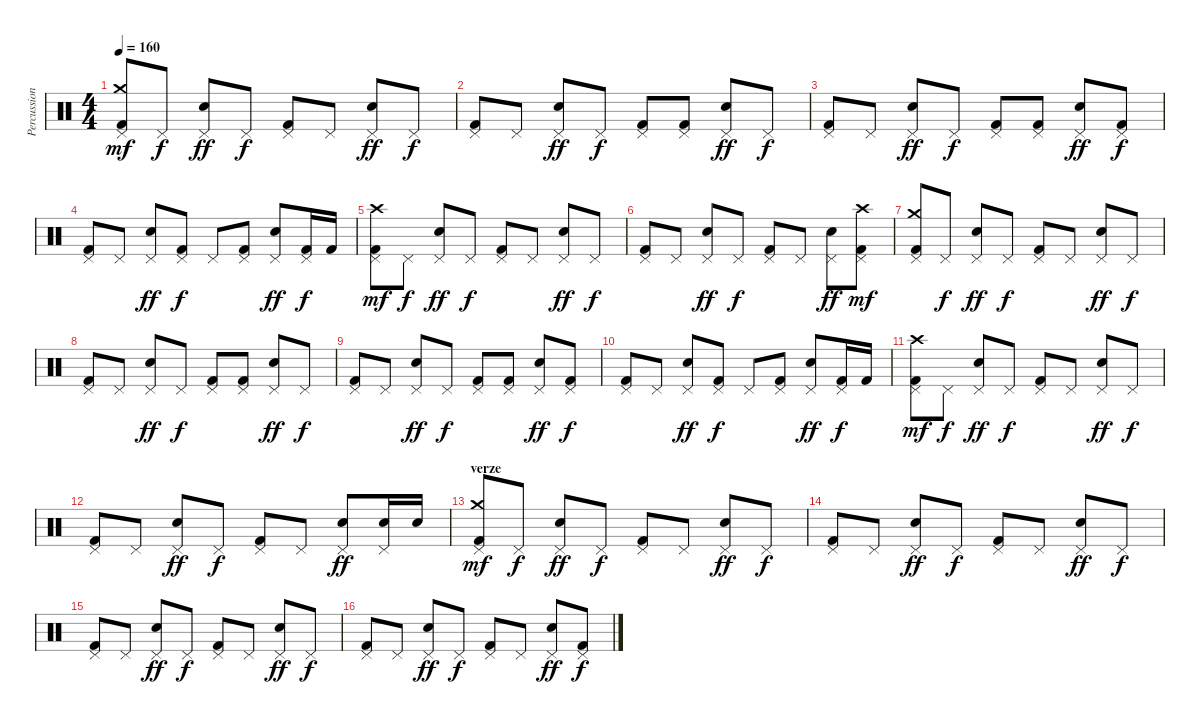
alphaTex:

\track ("Percussion" "Percussion") {instrument percussion}
\staff {score}
\articulation defaults
\ts (4 4)
\tempo 160
\clef neutral
\ks c
("Pedal Hi-Hat (hit)" "Crash medium (hit)" "Kick (hit) 2").8{dy mf} "Pedal Hi-Hat (hit)".8{dy f} ("Pedal Hi-Hat (hit)" "Electric Snare (hit)").8{dy ff} "Pedal Hi-Hat (hit)".8{dy f} ("Pedal Hi-Hat (hit)" "Kick (hit) 2").8 "Pedal Hi-Hat (hit)".8 ("Pedal Hi-Hat (hit)" "Electric Snare (hit)").8{dy ff} "Pedal Hi-Hat (hit)".8{dy f} |
("Pedal Hi-Hat (hit)" "Kick (hit) 2").8 "Pedal Hi-Hat (hit)".8 ("Pedal Hi-Hat (hit)" "Electric Snare (hit)").8{dy ff} "Pedal Hi-Hat (hit)".8{dy f} ("Pedal Hi-Hat (hit)" "Kick (hit) 2").8 ("Pedal Hi-Hat (hit)" "Kick (hit) 2").8 ("Pedal Hi-Hat (hit)" "Electric Snare (hit)").8{dy ff} "Pedal Hi-Hat (hit)".8{dy f} |
("Pedal Hi-Hat (hit)" "Kick (hit) 2").8 "Pedal Hi-Hat (hit)".8 ("Pedal Hi-Hat (hit)" "Electric Snare (hit)").8{dy ff} "Pedal Hi-Hat (hit)".8{dy f} ("Pedal Hi-Hat (hit)" "Kick (hit) 2").8 ("Pedal Hi-Hat (hit)" "Kick (hit) 2").8 ("Pedal Hi-Hat (hit)" "Electric Snare (hit)").8{dy ff} ("Pedal Hi-Hat (hit)" "Kick (hit) 2").8{dy f} |
("Pedal Hi-Hat (hit)" "Kick (hit) 2").8 "Pedal Hi-Hat (hit)".8 ("Pedal Hi-Hat (hit)" "Electric Snare (hit)").8{dy ff} ("Pedal Hi-Hat (hit)" "Kick (hit) 2").8{dy f} "Pedal Hi-Hat (hit)".8 ("Pedal Hi-Hat (hit)" "Kick (hit) 2").8 ("Pedal Hi-Hat (hit)" "Electric Snare (hit)").8{dy ff} ("Pedal Hi-Hat (hit)" "Kick (hit) 2").16{dy f} "Kick (hit) 2".16 |
("Pedal Hi-Hat (hit)" "Crash high (hit)" "Kick (hit) 2").8{dy mf} "Pedal Hi-Hat (hit)".8{dy f} ("Pedal Hi-Hat (hit)" "Electric Snare (hit)").8{dy ff} "Pedal Hi-Hat (hit)".8{dy f} ("Pedal Hi-Hat (hit)" "Kick (hit) 2").8 "Pedal Hi-Hat (hit)".8 ("Pedal Hi-Hat (hit)" "Electric Snare (hit)").8{dy ff} "Pedal Hi-Hat (hit)".8{dy f} |
("Pedal Hi-Hat (hit)" "Kick (hit) 2").8 "Pedal Hi-Hat (hit)".8 ("Pedal Hi-Hat (hit)" "Electric Snare (hit)").8{dy ff} "Pedal Hi-Hat (hit)".8{dy f} ("Pedal Hi-Hat (hit)" "Kick (hit) 2").8 "Pedal Hi-Hat (hit)".8 ("Pedal Hi-Hat (hit)" "Electric Snare (hit)").8{dy ff} ("Pedal Hi-Hat (hit)" "Crash high (hit)" "Kick (hit) 2").8{dy mf} |
("Pedal Hi-Hat (hit)" "Crash medium (hit)" "Kick (hit) 2").8 "Pedal Hi-Hat (hit)".8{dy f} ("Pedal Hi-Hat (hit)" "Electric Snare (hit)").8{dy ff} "Pedal Hi-Hat (hit)".8{dy f} ("Pedal Hi-Hat (hit)" "Kick (hit) 2").8 "Pedal Hi-Hat (hit)".8 ("Pedal Hi-Hat (hit)" "Electric Snare (hit)").8{dy ff} "Pedal Hi-Hat (hit)".8{dy f} |
("Pedal Hi-Hat (hit)" "Kick (hit) 2").8 "Pedal Hi-Hat (hit)".8 ("Pedal Hi-Hat (hit)" "Electric Snare (hit)").8{dy ff} "Pedal Hi-Hat (hit)".8{dy f} ("Pedal Hi-Hat (hit)" "Kick (hit) 2").8 ("Pedal Hi-Hat (hit)" "Kick (hit) 2").8 ("Pedal Hi-Hat (hit)" "Electric Snare (hit)").8{dy ff} "Pedal Hi-Hat (hit)".8{dy f} |
("Pedal Hi-Hat (hit)" "Kick (hit) 2").8 "Pedal Hi-Hat (hit)".8 ("Pedal Hi-Hat (hit)" "Electric Snare (hit)").8{dy ff} "Pedal Hi-Hat (hit)".8{dy f} ("Pedal Hi-Hat (hit)" "Kick (hit) 2").8 ("Pedal Hi-Hat (hit)" "Kick (hit) 2").8 ("Pedal Hi-Hat (hit)" "Electric Snare (hit)").8{dy ff} ("Pedal Hi-Hat (hit)" "Kick (hit) 2").8{dy f} |
("Pedal Hi-Hat (hit)" "Kick (hit) 2").8 "Pedal Hi-Hat (hit)".8 ("Pedal Hi-Hat (hit)" "Electric Snare (hit)").8{dy ff} ("Pedal Hi-Hat (hit)" "Kick (hit) 2").8{dy f} "Pedal Hi-Hat (hit)".8 ("Pedal Hi-Hat (hit)" "Kick (hit) 2").8 ("Pedal Hi-Hat (hit)" "Electric Snare (hit)").8{dy ff} ("Pedal Hi-Hat (hit)" "Kick (hit) 2").16{dy f} "Kick (hit) 2".16 |
("Pedal Hi-Hat (hit)" "Crash high (hit)" "Kick (hit) 2").8{dy mf} "Pedal Hi-Hat (hit)".8{dy f} ("Pedal Hi-Hat (hit)" "Electric Snare (hit)").8{dy ff} "Pedal Hi-Hat (hit)".8{dy f} ("Pedal Hi-Hat (hit)" "Kick (hit) 2").8 "Pedal Hi-Hat (hit)".8 ("Pedal Hi-Hat (hit)" "Electric Snare (hit)").8{dy ff} "Pedal Hi-Hat (hit)".8{dy f} |
("Pedal Hi-Hat (hit)" "Kick (hit) 2").8 "Pedal Hi-Hat (hit)".8 ("Pedal Hi-Hat (hit)" "Electric Snare (hit)").8{dy ff} "Pedal Hi-Hat (hit)".8{dy f} ("Pedal Hi-Hat (hit)" "Kick (hit) 2").8 "Pedal Hi-Hat (hit)".8 ("Pedal Hi-Hat (hit)" "Electric Snare (hit)").8{dy ff} ("Pedal Hi-Hat (hit)" "Electric Snare (hit)").16 "Electric Snare (hit)".16 |
\section ("" "verze")
("Pedal Hi-Hat (hit)" "Crash medium (hit)" "Kick (hit) 2").8{dy mf} "Pedal Hi-Hat (hit)".8{dy f} ("Pedal Hi-Hat (hit)" "Electric Snare (hit)").8{dy ff} "Pedal Hi-Hat (hit)".8{dy f} ("Pedal Hi-Hat (hit)" "Kick (hit) 2").8 "Pedal Hi-Hat (hit)".8 ("Pedal Hi-Hat (hit)" "Electric Snare (hit)").8{dy ff} "Pedal Hi-Hat (hit)".8{dy f} |
("Pedal Hi-Hat (hit)" "Kick (hit) 2").8 "Pedal Hi-Hat (hit)".8 ("Pedal Hi-Hat (hit)" "Electric Snare (hit)").8{dy ff} "Pedal Hi-Hat (hit)".8{dy f} ("Pedal Hi-Hat (hit)" "Kick (hit) 2").8 "Pedal Hi-Hat (hit)".8 ("Pedal Hi-Hat (hit)" "Electric Snare (hit)").8{dy ff} "Pedal Hi-Hat (hit)".8{dy f} |
("Pedal Hi-Hat (hit)" "Kick (hit) 2").8 "Pedal Hi-Hat (hit)".8 ("Pedal Hi-Hat (hit)" "Electric Snare (hit)").8{dy ff} "Pedal Hi-Hat (hit)".8{dy f} ("Pedal Hi-Hat (hit)" "Kick (hit) 2").8 "Pedal Hi-Hat (hit)".8 ("Pedal Hi-Hat (hit)" "Electric Snare (hit)").8{dy ff} "Pedal Hi-Hat (hit)".8{dy f} |
("Pedal Hi-Hat (hit)" "Kick (hit) 2").8 "Pedal Hi-Hat (hit)".8 ("Pedal Hi-Hat (hit)" "Electric Snare (hit)").8{dy ff} "Pedal Hi-Hat (hit)".8{dy f} ("Pedal Hi-Hat (hit)" "Kick (hit) 2").8 "Pedal Hi-Hat (hit)".8 ("Pedal Hi-Hat (hit)" "Electric Snare (hit)").8{dy ff} ("Pedal Hi-Hat (hit)" "Kick (hit) 2").8{dy f}
